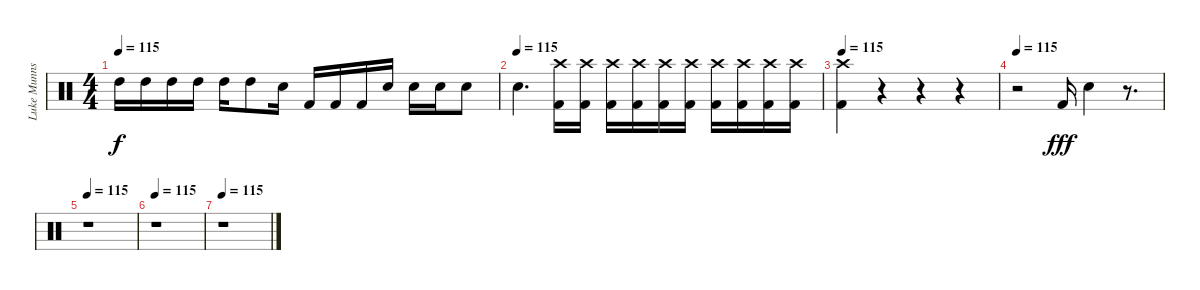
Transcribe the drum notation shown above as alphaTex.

\track ("Luke Munns" "Luke Munns") {instrument percussion}
\staff {score}
\articulation defaults
\ts (4 4)
\tempo 115
\clef neutral
\ks c "High Tom (hit)".16{dy f} "High Tom (hit)".16 "High Tom (hit)".16 "High Tom (hit)".16 "High Tom (hit)".16 "High Tom (hit)".8 "Electric Snare (hit)".16 "Kick (hit) 2".16 "Kick (hit) 2".16 "Kick (hit) 2".16 "Electric Snare (hit)".16 "Electric Snare (hit)".16 "Electric Snare (hit)".16 "Electric Snare (hit)".8
|
\tempo (115)
"Electric Snare (hit)".4{d} ("Kick (hit) 2" "Crash high (hit)").16 ("Kick (hit) 2" "Crash high (hit)").16 ("Kick (hit) 2" "Crash high (hit)").16 ("Kick (hit) 2" "Crash high (hit)").16 ("Kick (hit) 2" "Crash high (hit)").16 ("Kick (hit) 2" "Crash high (hit)").16 ("Kick (hit) 2" "Crash high (hit)").16 ("Kick (hit) 2" "Crash high (hit)").16 ("Kick (hit) 2" "Crash high (hit)").16 ("Kick (hit) 2" "Crash high (hit)").16 |
\tempo 115
("Kick (hit) 2" "Crash high (hit)").4 r.4 r.4 r.4 |
\tempo 115
r.2 "Kick (hit) 2".16{dy fff} "Electric Snare (hit)".4 r.8{d} |
\tempo 115
r.1 |
\tempo 115
r.1 |
\tempo 115
r.1
